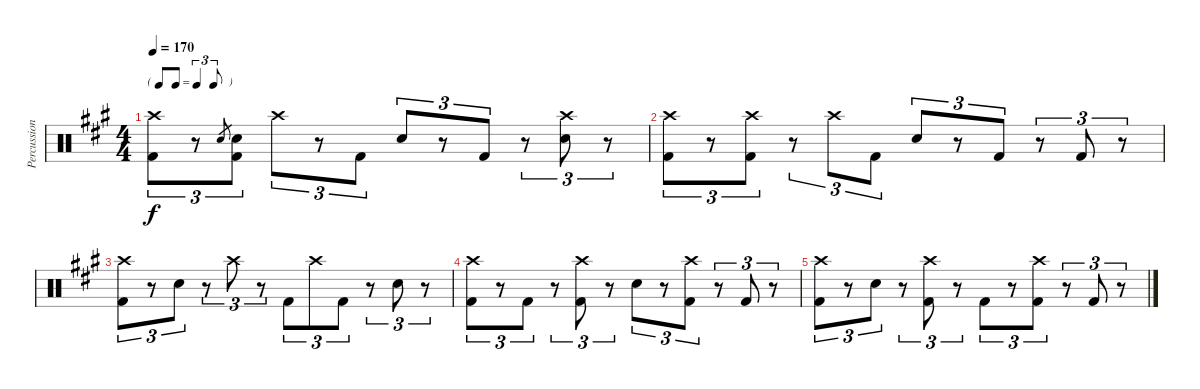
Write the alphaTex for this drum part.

\track ("Percussion" "Percussion") {instrument percussion}
\staff {score}
\articulation defaults
\ts (4 4)
\tf triplet8th
\tempo 170
\clef neutral
\ks a
("Crash high (hit)" "Kick (hit) 2").8{tu (3 2) dy f} r.8{tu (3 2)} "Electric Snare (hit)".8{gr} ("Electric Snare (hit)" "Kick (hit) 2").8{tu (3 2)} "Crash high (hit)".8{tu (3 2)} r.8{tu (3 2)} "Kick (hit) 2".8{tu (3 2)} "Electric Snare (hit)".8{tu (3 2)} r.8{tu (3 2)} "Kick (hit) 2".8{tu (3 2)} r.8{tu (3 2)} ("Crash high (hit)" "Electric Snare (hit)").8{tu (3 2)} r.8{tu (3 2)} |
("Crash high (hit)" "Kick (hit) 2").8{tu (3 2)} r.8{tu (3 2)} ("Crash high (hit)" "Kick (hit) 2").8{tu (3 2)} r.8{tu (3 2)} "Crash high (hit)".8{tu (3 2)} "Kick (hit) 2".8{tu (3 2)} "Electric Snare (hit)".8{tu (3 2)} r.8{tu (3 2)} "Kick (hit) 2".8{tu (3 2)} r.8{tu (3 2)} "Kick (hit) 2".8{tu (3 2)} r.8{tu (3 2)} |
("Crash high (hit)" "Kick (hit) 2").8{tu (3 2)} r.8{tu (3 2)} "Electric Snare (hit)".8{tu (3 2)} r.8{tu (3 2)} "Crash high (hit)".8{tu (3 2)} r.8{tu (3 2)} "Kick (hit) 2".8{tu (3 2)} "Crash high (hit)".8{tu (3 2)} "Kick (hit) 2".8{tu (3 2)} r.8{tu (3 2)} "Electric Snare (hit)".8{tu (3 2)} r.8{tu (3 2)} |
("Crash high (hit)" "Kick (hit) 2").8{tu (3 2)} r.8{tu (3 2)} "Kick (hit) 2".8{tu (3 2)} r.8{tu (3 2)} ("Crash high (hit)" "Kick (hit) 2").8{tu (3 2)} r.8{tu (3 2)} "Electric Snare (hit)".8{tu (3 2)} r.8{tu (3 2)} ("Crash high (hit)" "Kick (hit) 2").8{tu (3 2)} r.8{tu (3 2)} "Kick (hit) 2".8{tu (3 2)} r.8{tu (3 2)} |
("Crash high (hit)" "Kick (hit) 2").8{tu (3 2)} r.8{tu (3 2)} "Electric Snare (hit)".8{tu (3 2)} r.8{tu (3 2)} ("Crash high (hit)" "Kick (hit) 2").8{tu (3 2)} r.8{tu (3 2)} "Kick (hit) 2".8{tu (3 2)} r.8{tu (3 2)} ("Crash high (hit)" "Kick (hit) 2").8{tu (3 2)} r.8{tu (3 2)} "Kick (hit) 2".8{tu (3 2)} r.8{tu (3 2)}
